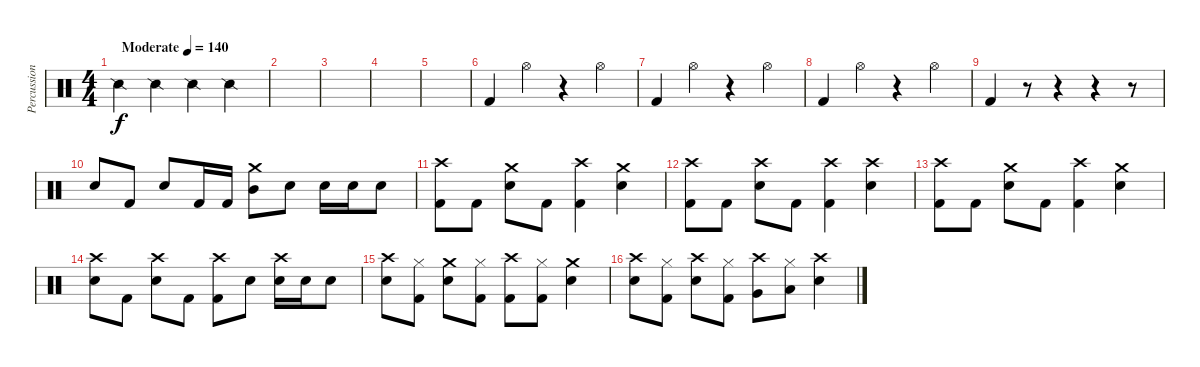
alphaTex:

\track ("Percussion" "Percussion") {instrument percussion}
\staff {score}
\articulation defaults
\ts (4 4)
\tempo (140 "Moderate")
\clef neutral
\ks c "Snare (side stick) 2".4{dy f} "Snare (side stick) 2".4 "Snare (side stick) 2".4 "Snare (side stick) 2".4
|
|
|
|
|
"Kick (hit) 2".4 "Hi-Hat (open)".4 r.4 "Hi-Hat (open)".4 |
"Kick (hit) 2".4 "Hi-Hat (open)".4 r.4 "Hi-Hat (open)".4 |
"Kick (hit) 2".4 "Hi-Hat (open)".4 r.4 "Hi-Hat (open)".4 |
"Kick (hit) 2".4 r.8 r.4 r.4 r.8 |
"Electric Snare (hit)".8 "Kick (hit) 2".8 "Electric Snare (hit)".8 "Kick (hit) 2".16 "Kick (hit) 2".16 ("Crash medium (hit)" "Mid Tom (hit)").8 "Electric Snare (hit)".8 "Electric Snare (hit)".16 "Electric Snare (hit)".16 "Electric Snare (hit)".8 |
("Crash high (hit)" "Kick (hit) 2").8 "Kick (hit) 2".8 ("Crash medium (hit)" "Electric Snare (hit)").8 "Kick (hit) 2".8 ("Crash high (hit)" "Kick (hit) 2").4 ("Crash medium (hit)" "Electric Snare (hit)").4 |
("Crash high (hit)" "Kick (hit) 2").8 "Kick (hit) 2".8 ("Crash high (hit)" "Electric Snare (hit)").8 "Kick (hit) 2".8 ("Crash high (hit)" "Kick (hit) 2").4 ("Crash high (hit)" "Electric Snare (hit)").4 |
("Crash high (hit)" "Kick (hit) 2").8 "Kick (hit) 2".8 ("Crash medium (hit)" "Electric Snare (hit)").8 "Kick (hit) 2".8 ("Crash high (hit)" "Kick (hit) 2").4 ("Crash medium (hit)" "Electric Snare (hit)").4 |
("Crash high (hit)" "Electric Snare (hit)").8 "Kick (hit) 2".8 ("Crash high (hit)" "Electric Snare (hit)").8 "Kick (hit) 2".8 ("Crash high (hit)" "Kick (hit) 2").8 "Electric Snare (hit)".8 ("Crash high (hit)" "Electric Snare (hit)").16 "Electric Snare (hit)".16 "Electric Snare (hit)".8 |
("Crash high (hit)" "Electric Snare (hit)").8 ("Hi-Hat (closed)" "Kick (hit) 2").8 ("Crash medium (hit)" "Electric Snare (hit)").8 ("Hi-Hat (closed)" "Kick (hit) 2").8 ("Crash high (hit)" "Kick (hit) 2").8 ("Hi-Hat (closed)" "Kick (hit) 2").8 ("Crash medium (hit)" "Electric Snare (hit)").4 |
("Crash high (hit)" "Electric Snare (hit)").8 ("Hi-Hat (closed)" "Kick (hit) 2").8 ("Crash high (hit)" "Electric Snare (hit)").8 ("Hi-Hat (closed)" "Kick (hit) 2").8 ("Crash high (hit)" "Very Low Tom (hit)").8 ("Hi-Hat (closed)" "Low Tom (hit)").8 ("Crash high (hit)" "Electric Snare (hit)").4
